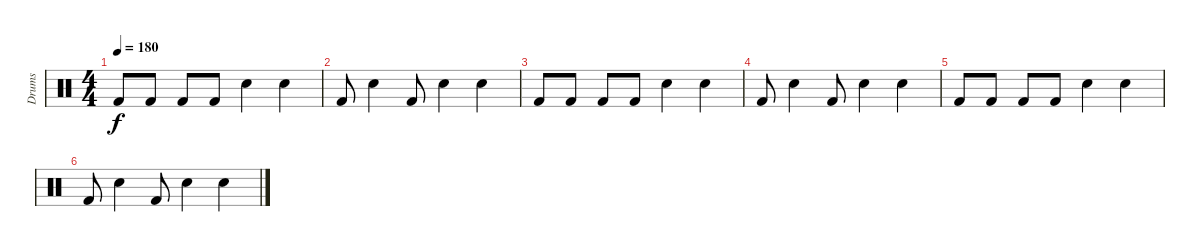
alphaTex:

\track ("Drums" "Drums") {instrument percussion}
\staff {score}
\articulation defaults
\ts (4 4)
\tempo 180
\clef neutral
\ks c "Kick (hit) 2".8{dy f} "Kick (hit) 2".8 "Kick (hit) 2".8 "Kick (hit) 2".8 "Snare (hit) 2".4 "Snare (hit) 2".4
|
"Kick (hit) 2".8 "Snare (hit) 2".4 "Kick (hit) 2".8 "Snare (hit) 2".4 "Snare (hit) 2".4 |
"Kick (hit) 2".8 "Kick (hit) 2".8 "Kick (hit) 2".8 "Kick (hit) 2".8 "Snare (hit) 2".4 "Snare (hit) 2".4 |
"Kick (hit) 2".8 "Snare (hit) 2".4 "Kick (hit) 2".8 "Snare (hit) 2".4 "Snare (hit) 2".4 |
"Kick (hit) 2".8 "Kick (hit) 2".8 "Kick (hit) 2".8 "Kick (hit) 2".8 "Snare (hit) 2".4 "Snare (hit) 2".4 |
"Kick (hit) 2".8 "Snare (hit) 2".4 "Kick (hit) 2".8 "Snare (hit) 2".4 "Snare (hit) 2".4
